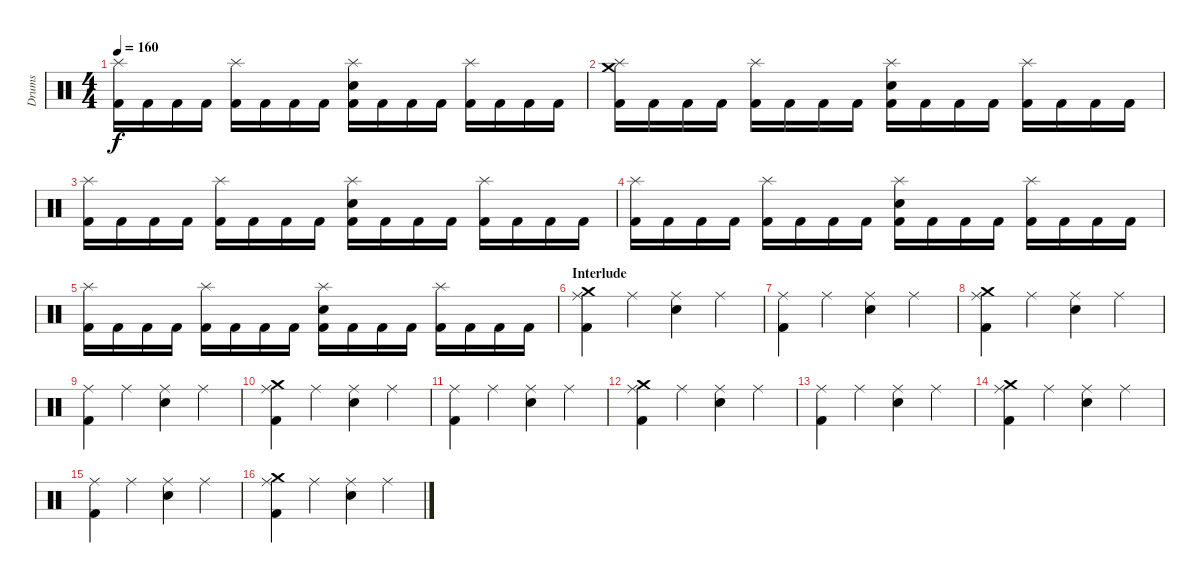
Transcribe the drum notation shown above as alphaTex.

\track ("Drums" "Drums") {instrument percussion}
\staff {score}
\articulation defaults
\ts (4 4)
\tempo 160
\clef neutral
\ks c
("Splash (hit)" "Kick (hit) 2").16{dy f} "Kick (hit) 2".16 "Kick (hit) 2".16 "Kick (hit) 2".16 ("Splash (hit)" "Kick (hit) 2").16 "Kick (hit) 2".16 "Kick (hit) 2".16 "Kick (hit) 2".16 ("Splash (hit)" "Snare (hit) 2" "Kick (hit) 2").16 "Kick (hit) 2".16 "Kick (hit) 2".16 "Kick (hit) 2".16 ("Splash (hit)" "Kick (hit) 2").16 "Kick (hit) 2".16 "Kick (hit) 2".16 "Kick (hit) 2".16 |
("Splash (hit)" "Crash medium (hit)" "Kick (hit) 2").16 "Kick (hit) 2".16 "Kick (hit) 2".16 "Kick (hit) 2".16 ("Splash (hit)" "Kick (hit) 2").16 "Kick (hit) 2".16 "Kick (hit) 2".16 "Kick (hit) 2".16 ("Splash (hit)" "Snare (hit) 2" "Kick (hit) 2").16 "Kick (hit) 2".16 "Kick (hit) 2".16 "Kick (hit) 2".16 ("Splash (hit)" "Kick (hit) 2").16 "Kick (hit) 2".16 "Kick (hit) 2".16 "Kick (hit) 2".16 |
("Splash (hit)" "Kick (hit) 2").16 "Kick (hit) 2".16 "Kick (hit) 2".16 "Kick (hit) 2".16 ("Splash (hit)" "Kick (hit) 2").16 "Kick (hit) 2".16 "Kick (hit) 2".16 "Kick (hit) 2".16 ("Splash (hit)" "Snare (hit) 2" "Kick (hit) 2").16 "Kick (hit) 2".16 "Kick (hit) 2".16 "Kick (hit) 2".16 ("Splash (hit)" "Kick (hit) 2").16 "Kick (hit) 2".16 "Kick (hit) 2".16 "Kick (hit) 2".16 |
("Splash (hit)" "Kick (hit) 2").16 "Kick (hit) 2".16 "Kick (hit) 2".16 "Kick (hit) 2".16 ("Splash (hit)" "Kick (hit) 2").16 "Kick (hit) 2".16 "Kick (hit) 2".16 "Kick (hit) 2".16 ("Splash (hit)" "Snare (hit) 2" "Kick (hit) 2").16 "Kick (hit) 2".16 "Kick (hit) 2".16 "Kick (hit) 2".16 ("Splash (hit)" "Kick (hit) 2").16 "Kick (hit) 2".16 "Kick (hit) 2".16 "Kick (hit) 2".16 |
("Splash (hit)" "Kick (hit) 2").16 "Kick (hit) 2".16 "Kick (hit) 2".16 "Kick (hit) 2".16 ("Splash (hit)" "Kick (hit) 2").16 "Kick (hit) 2".16 "Kick (hit) 2".16 "Kick (hit) 2".16 ("Splash (hit)" "Snare (hit) 2" "Kick (hit) 2").16 "Kick (hit) 2".16 "Kick (hit) 2".16 "Kick (hit) 2".16 ("Splash (hit)" "Kick (hit) 2").16 "Kick (hit) 2".16 "Kick (hit) 2".16 "Kick (hit) 2".16 |
\section ("" "Interlude")
("Ride (middle)" "Crash medium (hit)" "Kick (hit) 2").4 "Ride (middle)".4 ("Ride (middle)" "Snare (hit) 2").4 "Ride (middle)".4 |
("Ride (middle)" "Kick (hit) 2").4 "Ride (middle)".4 ("Ride (middle)" "Snare (hit) 2").4 "Ride (middle)".4 |
("Ride (middle)" "Crash medium (hit)" "Kick (hit) 2").4 "Ride (middle)".4 ("Ride (middle)" "Snare (hit) 2").4 "Ride (middle)".4 |
("Ride (middle)" "Kick (hit) 2").4 "Ride (middle)".4 ("Ride (middle)" "Snare (hit) 2").4 "Ride (middle)".4 |
("Ride (middle)" "Crash medium (hit)" "Kick (hit) 2").4 "Ride (middle)".4 ("Ride (middle)" "Snare (hit) 2").4 "Ride (middle)".4 |
("Ride (middle)" "Kick (hit) 2").4 "Ride (middle)".4 ("Ride (middle)" "Snare (hit) 2").4 "Ride (middle)".4 |
("Ride (middle)" "Crash medium (hit)" "Kick (hit) 2").4 "Ride (middle)".4 ("Ride (middle)" "Snare (hit) 2").4 "Ride (middle)".4 |
("Ride (middle)" "Kick (hit) 2").4 "Ride (middle)".4 ("Ride (middle)" "Snare (hit) 2").4 "Ride (middle)".4 |
("Ride (middle)" "Crash medium (hit)" "Kick (hit) 2").4 "Ride (middle)".4 ("Ride (middle)" "Snare (hit) 2").4 "Ride (middle)".4 |
("Ride (middle)" "Kick (hit) 2").4 "Ride (middle)".4 ("Ride (middle)" "Snare (hit) 2").4 "Ride (middle)".4 |
("Ride (middle)" "Crash medium (hit)" "Kick (hit) 2").4 "Ride (middle)".4 ("Ride (middle)" "Snare (hit) 2").4 "Ride (middle)".4
